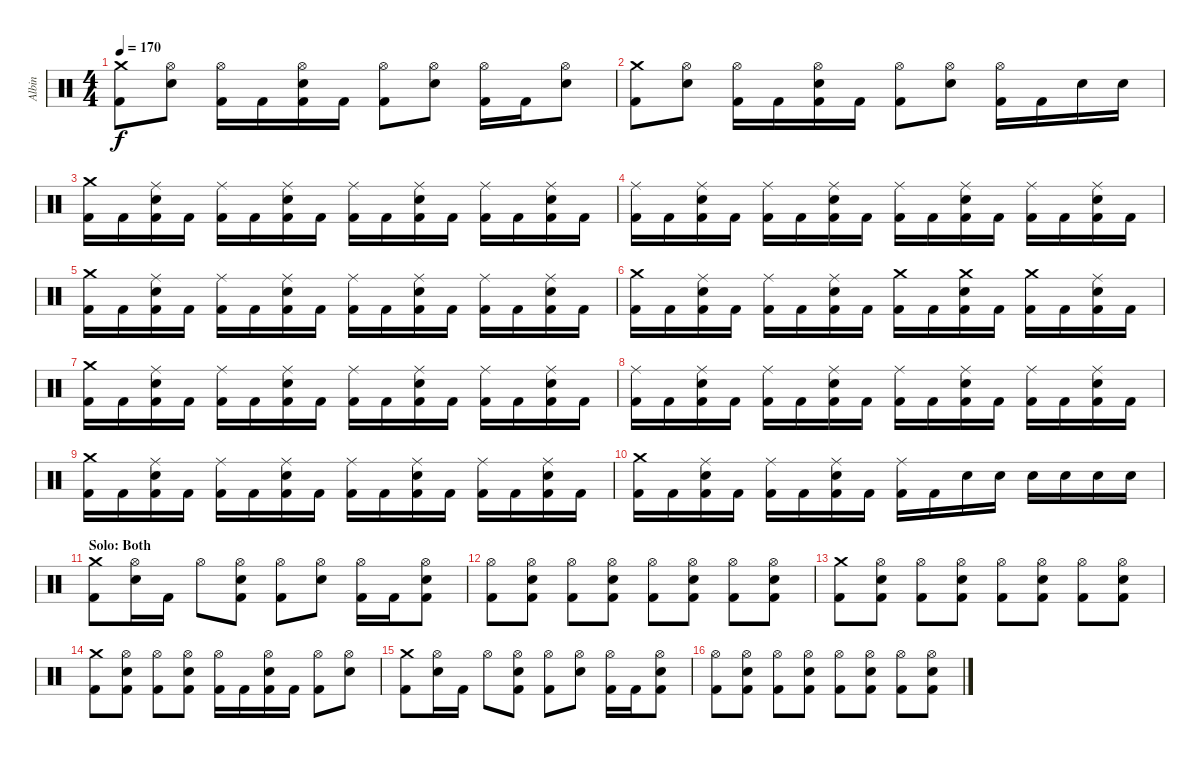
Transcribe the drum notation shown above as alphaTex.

\track ("Albin" "Albin") {instrument percussion}
\staff {score}
\articulation defaults
\ts (4 4)
\tempo 170
\clef neutral
\ks c
("Crash medium (hit)" "Kick (hit) 2").8{dy f} ("Hi-Hat (open)" "Electric Snare (hit)").8 ("Hi-Hat (open)" "Kick (hit) 2").16 "Kick (hit) 2".16 ("Hi-Hat (open)" "Electric Snare (hit)" "Kick (hit) 2").16 "Kick (hit) 2".16 ("Hi-Hat (open)" "Kick (hit) 2").8 ("Hi-Hat (open)" "Electric Snare (hit)").8 ("Hi-Hat (open)" "Kick (hit) 2").16 "Kick (hit) 2".16 ("Hi-Hat (open)" "Electric Snare (hit)").8 |
("Crash medium (hit)" "Kick (hit) 2").8 ("Hi-Hat (open)" "Electric Snare (hit)").8 ("Hi-Hat (open)" "Kick (hit) 2").16 "Kick (hit) 2".16 ("Hi-Hat (open)" "Electric Snare (hit)" "Kick (hit) 2").16 "Kick (hit) 2".16 ("Hi-Hat (open)" "Kick (hit) 2").8 ("Hi-Hat (open)" "Electric Snare (hit)").8 ("Hi-Hat (open)" "Kick (hit) 2").16 "Kick (hit) 2".16 "Electric Snare (hit)".16 "Electric Snare (hit)".16 |
("Crash medium (hit)" "Kick (hit) 2").16 "Kick (hit) 2".16 ("Ride (middle)" "Electric Snare (hit)" "Kick (hit) 2").16 "Kick (hit) 2".16 ("Ride (middle)" "Kick (hit) 2").16 "Kick (hit) 2".16 ("Ride (middle)" "Electric Snare (hit)" "Kick (hit) 2").16 "Kick (hit) 2".16 ("Ride (middle)" "Kick (hit) 2").16 "Kick (hit) 2".16 ("Ride (middle)" "Electric Snare (hit)" "Kick (hit) 2").16 "Kick (hit) 2".16 ("Ride (middle)" "Kick (hit) 2").16 "Kick (hit) 2".16 ("Ride (middle)" "Electric Snare (hit)" "Kick (hit) 2").16 "Kick (hit) 2".16 |
("Ride (middle)" "Kick (hit) 2").16 "Kick (hit) 2".16 ("Ride (middle)" "Electric Snare (hit)" "Kick (hit) 2").16 "Kick (hit) 2".16 ("Ride (middle)" "Kick (hit) 2").16 "Kick (hit) 2".16 ("Ride (middle)" "Electric Snare (hit)" "Kick (hit) 2").16 "Kick (hit) 2".16 ("Ride (middle)" "Kick (hit) 2").16 "Kick (hit) 2".16 ("Ride (middle)" "Electric Snare (hit)" "Kick (hit) 2").16 "Kick (hit) 2".16 ("Ride (middle)" "Kick (hit) 2").16 "Kick (hit) 2".16 ("Ride (middle)" "Electric Snare (hit)" "Kick (hit) 2").16 "Kick (hit) 2".16 |
("Crash medium (hit)" "Kick (hit) 2").16 "Kick (hit) 2".16 ("Ride (middle)" "Electric Snare (hit)" "Kick (hit) 2").16 "Kick (hit) 2".16 ("Ride (middle)" "Kick (hit) 2").16 "Kick (hit) 2".16 ("Ride (middle)" "Electric Snare (hit)" "Kick (hit) 2").16 "Kick (hit) 2".16 ("Ride (middle)" "Kick (hit) 2").16 "Kick (hit) 2".16 ("Ride (middle)" "Electric Snare (hit)" "Kick (hit) 2").16 "Kick (hit) 2".16 ("Ride (middle)" "Kick (hit) 2").16 "Kick (hit) 2".16 ("Ride (middle)" "Electric Snare (hit)" "Kick (hit) 2").16 "Kick (hit) 2".16 |
("Crash medium (hit)" "Kick (hit) 2").16 "Kick (hit) 2".16 ("Ride (middle)" "Electric Snare (hit)" "Kick (hit) 2").16 "Kick (hit) 2".16 ("Ride (middle)" "Kick (hit) 2").16 "Kick (hit) 2".16 ("Ride (middle)" "Electric Snare (hit)" "Kick (hit) 2").16 "Kick (hit) 2".16 ("Crash medium (hit)" "Kick (hit) 2").16 "Kick (hit) 2".16 ("Crash medium (hit)" "Electric Snare (hit)" "Kick (hit) 2").16 "Kick (hit) 2".16 ("Crash medium (hit)" "Kick (hit) 2").16 "Kick (hit) 2".16 ("Ride (middle)" "Electric Snare (hit)" "Kick (hit) 2").16 "Kick (hit) 2".16 |
("Crash medium (hit)" "Kick (hit) 2").16 "Kick (hit) 2".16 ("Ride (middle)" "Electric Snare (hit)" "Kick (hit) 2").16 "Kick (hit) 2".16 ("Ride (middle)" "Kick (hit) 2").16 "Kick (hit) 2".16 ("Ride (middle)" "Electric Snare (hit)" "Kick (hit) 2").16 "Kick (hit) 2".16 ("Ride (middle)" "Kick (hit) 2").16 "Kick (hit) 2".16 ("Ride (middle)" "Electric Snare (hit)" "Kick (hit) 2").16 "Kick (hit) 2".16 ("Ride (middle)" "Kick (hit) 2").16 "Kick (hit) 2".16 ("Ride (middle)" "Electric Snare (hit)" "Kick (hit) 2").16 "Kick (hit) 2".16 |
("Ride (middle)" "Kick (hit) 2").16 "Kick (hit) 2".16 ("Ride (middle)" "Electric Snare (hit)" "Kick (hit) 2").16 "Kick (hit) 2".16 ("Ride (middle)" "Kick (hit) 2").16 "Kick (hit) 2".16 ("Ride (middle)" "Electric Snare (hit)" "Kick (hit) 2").16 "Kick (hit) 2".16 ("Ride (middle)" "Kick (hit) 2").16 "Kick (hit) 2".16 ("Ride (middle)" "Electric Snare (hit)" "Kick (hit) 2").16 "Kick (hit) 2".16 ("Ride (middle)" "Kick (hit) 2").16 "Kick (hit) 2".16 ("Ride (middle)" "Electric Snare (hit)" "Kick (hit) 2").16 "Kick (hit) 2".16 |
("Crash medium (hit)" "Kick (hit) 2").16 "Kick (hit) 2".16 ("Ride (middle)" "Electric Snare (hit)" "Kick (hit) 2").16 "Kick (hit) 2".16 ("Ride (middle)" "Kick (hit) 2").16 "Kick (hit) 2".16 ("Ride (middle)" "Electric Snare (hit)" "Kick (hit) 2").16 "Kick (hit) 2".16 ("Ride (middle)" "Kick (hit) 2").16 "Kick (hit) 2".16 ("Ride (middle)" "Electric Snare (hit)" "Kick (hit) 2").16 "Kick (hit) 2".16 ("Ride (middle)" "Kick (hit) 2").16 "Kick (hit) 2".16 ("Ride (middle)" "Electric Snare (hit)" "Kick (hit) 2").16 "Kick (hit) 2".16 |
("Crash medium (hit)" "Kick (hit) 2").16 "Kick (hit) 2".16 ("Ride (middle)" "Electric Snare (hit)" "Kick (hit) 2").16 "Kick (hit) 2".16 ("Ride (middle)" "Kick (hit) 2").16 "Kick (hit) 2".16 ("Ride (middle)" "Electric Snare (hit)" "Kick (hit) 2").16 "Kick (hit) 2".16 ("Ride (middle)" "Kick (hit) 2").16 "Kick (hit) 2".16 "Electric Snare (hit)".16 "Electric Snare (hit)".16 "Electric Snare (hit)".16 "Electric Snare (hit)".16 "Electric Snare (hit)".16 "Electric Snare (hit)".16 |
\section ("" "Solo: Both")
("Crash medium (hit)" "Kick (hit) 2").8 ("Hi-Hat (open)" "Electric Snare (hit)").16 "Kick (hit) 2".16 "Hi-Hat (open)".8 ("Hi-Hat (open)" "Electric Snare (hit)" "Kick (hit) 2").8 ("Hi-Hat (open)" "Kick (hit) 2").8 ("Hi-Hat (open)" "Electric Snare (hit)").8 ("Hi-Hat (open)" "Kick (hit) 2").16 "Kick (hit) 2".16 ("Hi-Hat (open)" "Electric Snare (hit)" "Kick (hit) 2").8 |
("Hi-Hat (open)" "Kick (hit) 2").8 ("Hi-Hat (open)" "Electric Snare (hit)" "Kick (hit) 2").8 ("Hi-Hat (open)" "Kick (hit) 2").8 ("Hi-Hat (open)" "Electric Snare (hit)" "Kick (hit) 2").8 ("Hi-Hat (open)" "Kick (hit) 2").8 ("Hi-Hat (open)" "Electric Snare (hit)" "Kick (hit) 2").8 ("Hi-Hat (open)" "Kick (hit) 2").8 ("Hi-Hat (open)" "Electric Snare (hit)" "Kick (hit) 2").8 |
("Crash medium (hit)" "Kick (hit) 2").8 ("Hi-Hat (open)" "Electric Snare (hit)" "Kick (hit) 2").8 ("Hi-Hat (open)" "Kick (hit) 2").8 ("Hi-Hat (open)" "Electric Snare (hit)" "Kick (hit) 2").8 ("Hi-Hat (open)" "Kick (hit) 2").8 ("Hi-Hat (open)" "Electric Snare (hit)" "Kick (hit) 2").8 ("Hi-Hat (open)" "Kick (hit) 2").8 ("Hi-Hat (open)" "Electric Snare (hit)" "Kick (hit) 2").8 |
("Crash medium (hit)" "Kick (hit) 2").8 ("Hi-Hat (open)" "Electric Snare (hit)" "Kick (hit) 2").8 ("Hi-Hat (open)" "Kick (hit) 2").8 ("Hi-Hat (open)" "Electric Snare (hit)" "Kick (hit) 2").8 ("Hi-Hat (open)" "Kick (hit) 2").16 "Kick (hit) 2".16 ("Hi-Hat (open)" "Electric Snare (hit)" "Kick (hit) 2").16 "Kick (hit) 2".16 ("Hi-Hat (open)" "Kick (hit) 2").8 ("Hi-Hat (open)" "Electric Snare (hit)").8 |
("Crash medium (hit)" "Kick (hit) 2").8 ("Hi-Hat (open)" "Electric Snare (hit)").16 "Kick (hit) 2".16 "Hi-Hat (open)".8 ("Hi-Hat (open)" "Electric Snare (hit)" "Kick (hit) 2").8 ("Hi-Hat (open)" "Kick (hit) 2").8 ("Hi-Hat (open)" "Electric Snare (hit)").8 ("Hi-Hat (open)" "Kick (hit) 2").16 "Kick (hit) 2".16 ("Hi-Hat (open)" "Electric Snare (hit)" "Kick (hit) 2").8 |
("Hi-Hat (open)" "Kick (hit) 2").8 ("Hi-Hat (open)" "Electric Snare (hit)" "Kick (hit) 2").8 ("Hi-Hat (open)" "Kick (hit) 2").8 ("Hi-Hat (open)" "Electric Snare (hit)" "Kick (hit) 2").8 ("Hi-Hat (open)" "Kick (hit) 2").8 ("Hi-Hat (open)" "Electric Snare (hit)" "Kick (hit) 2").8 ("Hi-Hat (open)" "Kick (hit) 2").8 ("Hi-Hat (open)" "Electric Snare (hit)" "Kick (hit) 2").8
